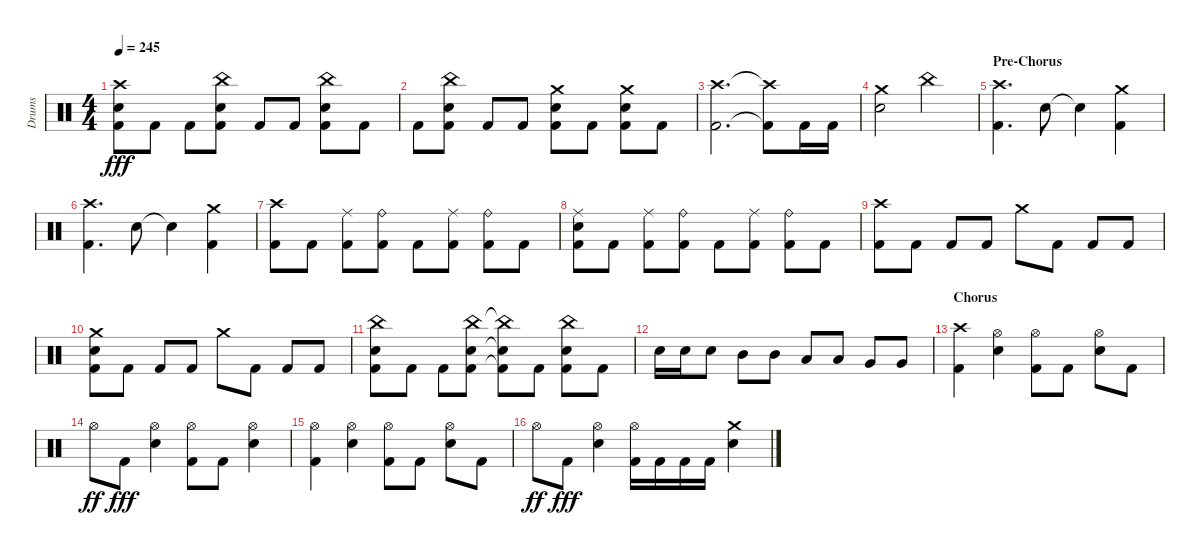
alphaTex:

\track ("Drums" "Drums") {instrument percussion}
\staff {score}
\articulation defaults
\ts (4 4)
\tempo 245
\clef neutral
\ks aminor
("Snare (hit) 2" "Kick (hit) 2" "Crash high (hit)").8{dy fff} "Kick (hit) 2".8 "Kick (hit) 2".8 ("Kick (hit) 2" "Snare (hit) 2" "China (hit)").8 "Kick (hit) 2".8 "Kick (hit) 2".8 ("Kick (hit) 2" "Snare (hit) 2" "China (hit)").8 "Kick (hit) 2".8 |
"Kick (hit) 2".8 ("Kick (hit) 2" "Snare (hit) 2" "China (hit)").8 "Kick (hit) 2".8 "Kick (hit) 2".8 ("Kick (hit) 2" "Snare (hit) 2" "Crash medium (hit)").8 "Kick (hit) 2".8 ("Kick (hit) 2" "Snare (hit) 2" "Crash medium (hit)").8 "Kick (hit) 2".8 |
("Kick (hit) 2" "Crash high (hit)").2{d} ("Kick (hit) 2"{t} "Crash high (hit)"{t}).8 "Kick (hit) 2".16 "Kick (hit) 2".16 |
("Snare (hit) 2" "Crash medium (hit)").2 "China (hit)".2 |
\section ("" "Pre-Chorus")
("Kick (hit) 2" "Crash high (hit)").4{d} "Snare (hit) 2".8 "Snare (hit) 2"{t}.4 ("Kick (hit) 2" "Crash medium (hit)").4 |
("Kick (hit) 2" "Crash high (hit)").4{d} "Snare (hit) 2".8 "Snare (hit) 2"{t}.4 ("Kick (hit) 2" "Crash medium (hit)").4 |
("Kick (hit) 2" "Crash high (hit)").8 "Kick (hit) 2".8 ("Kick (hit) 2" "Ride (middle)").8 ("Kick (hit) 2" "Ride (bell)").8 "Kick (hit) 2".8 ("Kick (hit) 2" "Ride (middle)").8 ("Kick (hit) 2" "Ride (bell)").8 "Kick (hit) 2".8 |
("Kick (hit) 2" "Snare (hit) 2" "Ride (middle)").8 "Kick (hit) 2".8 ("Kick (hit) 2" "Ride (middle)").8 ("Kick (hit) 2" "Ride (bell)").8 "Kick (hit) 2".8 ("Kick (hit) 2" "Ride (middle)").8 ("Kick (hit) 2" "Ride (bell)").8 "Kick (hit) 2".8 |
("Kick (hit) 2" "Crash high (hit)").8 "Kick (hit) 2".8 "Kick (hit) 2".8 "Kick (hit) 2".8 "Crash medium (hit)".8 "Kick (hit) 2".8 "Kick (hit) 2".8 "Kick (hit) 2".8 |
("Kick (hit) 2" "Snare (hit) 2" "Crash medium (hit)").8 "Kick (hit) 2".8 "Kick (hit) 2".8 "Kick (hit) 2".8 "Crash medium (hit)".8 "Kick (hit) 2".8 "Kick (hit) 2".8 "Kick (hit) 2".8 |
("Kick (hit) 2" "Snare (hit) 2" "China (hit)").8 "Kick (hit) 2".8 "Kick (hit) 2".8 ("Snare (hit) 2" "Kick (hit) 2" "China (hit)").8 ("Snare (hit) 2"{t} "Kick (hit) 2"{t} "China (hit)"{t}).8 "Kick (hit) 2".8 ("Kick (hit) 2" "Snare (hit) 2" "China (hit)").8 "Kick (hit) 2".8 |
"Snare (hit) 2".16 "Snare (hit) 2".16 "Snare (hit) 2".8 "Mid Tom (hit)".8 "Mid Tom (hit)".8 "Low Tom (hit)".8 "Low Tom (hit)".8 "Very Low Tom (hit)".8 "Very Low Tom (hit)".8 |
\section ("" "Chorus")
("Kick (hit) 2" "Crash high (hit)").4 ("Snare (hit) 2" "Hi-Hat (open)").4 ("Kick (hit) 2" "Hi-Hat (open)").8 "Kick (hit) 2".8 ("Snare (hit) 2" "Hi-Hat (open)").8 "Kick (hit) 2".8 |
"Hi-Hat (open)".8{dy ff} "Kick (hit) 2".8{dy fff} ("Snare (hit) 2" "Hi-Hat (open)").4 ("Kick (hit) 2" "Hi-Hat (open)").8 "Kick (hit) 2".8 ("Snare (hit) 2" "Hi-Hat (open)").4 |
("Kick (hit) 2" "Hi-Hat (open)").4 ("Snare (hit) 2" "Hi-Hat (open)").4 ("Kick (hit) 2" "Hi-Hat (open)").8 "Kick (hit) 2".8 ("Snare (hit) 2" "Hi-Hat (open)").8 "Kick (hit) 2".8 |
"Hi-Hat (open)".8{dy ff} "Kick (hit) 2".8{dy fff} ("Snare (hit) 2" "Hi-Hat (open)").4 ("Kick (hit) 2" "Hi-Hat (open)").16 "Kick (hit) 2".16 "Kick (hit) 2".16 "Kick (hit) 2".16 ("Snare (hit) 2" "Crash medium (hit)").4
